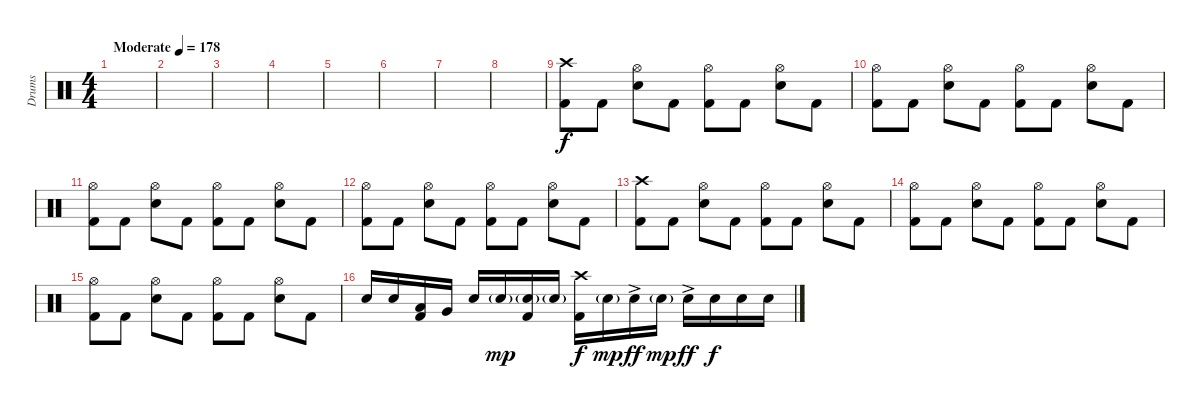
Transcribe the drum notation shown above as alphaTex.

\track ("Drums" "Drums") {instrument percussion}
\staff {score}
\articulation defaults
\ts (4 4)
\tempo (178 "Moderate")
\clef neutral
\ks c
|
|
|
|
|
|
|
|
("Crash high (hit)" "Kick (hit) 2").8 "Kick (hit) 2".8 ("Hi-Hat (open)" "Electric Snare (hit)").8 "Kick (hit) 2".8 ("Hi-Hat (open)" "Kick (hit) 2").8 "Kick (hit) 2".8 ("Hi-Hat (open)" "Electric Snare (hit)").8 "Kick (hit) 2".8 |
("Hi-Hat (open)" "Kick (hit) 2").8 "Kick (hit) 2".8 ("Hi-Hat (open)" "Electric Snare (hit)").8 "Kick (hit) 2".8 ("Hi-Hat (open)" "Kick (hit) 2").8 "Kick (hit) 2".8 ("Hi-Hat (open)" "Electric Snare (hit)").8 "Kick (hit) 2".8 |
("Hi-Hat (open)" "Kick (hit) 2").8 "Kick (hit) 2".8 ("Hi-Hat (open)" "Electric Snare (hit)").8 "Kick (hit) 2".8 ("Hi-Hat (open)" "Kick (hit) 2").8 "Kick (hit) 2".8 ("Hi-Hat (open)" "Electric Snare (hit)").8 "Kick (hit) 2".8 |
("Hi-Hat (open)" "Kick (hit) 2").8 "Kick (hit) 2".8 ("Hi-Hat (open)" "Electric Snare (hit)").8 "Kick (hit) 2".8 ("Hi-Hat (open)" "Kick (hit) 2").8 "Kick (hit) 2".8 ("Hi-Hat (open)" "Electric Snare (hit)").8 "Kick (hit) 2".8 |
("Crash high (hit)" "Kick (hit) 2").8 "Kick (hit) 2".8 ("Hi-Hat (open)" "Electric Snare (hit)").8 "Kick (hit) 2".8 ("Hi-Hat (open)" "Kick (hit) 2").8 "Kick (hit) 2".8 ("Hi-Hat (open)" "Electric Snare (hit)").8 "Kick (hit) 2".8 |
("Hi-Hat (open)" "Kick (hit) 2").8 "Kick (hit) 2".8 ("Hi-Hat (open)" "Electric Snare (hit)").8 "Kick (hit) 2".8 ("Hi-Hat (open)" "Kick (hit) 2").8 "Kick (hit) 2".8 ("Hi-Hat (open)" "Electric Snare (hit)").8 "Kick (hit) 2".8 |
("Hi-Hat (open)" "Kick (hit) 2").8 "Kick (hit) 2".8 ("Hi-Hat (open)" "Electric Snare (hit)").8 "Kick (hit) 2".8 ("Hi-Hat (open)" "Kick (hit) 2").8 "Kick (hit) 2".8 ("Hi-Hat (open)" "Electric Snare (hit)").8 "Kick (hit) 2".8 |
"Electric Snare (hit)".16 "Electric Snare (hit)".16 ("Low Tom (hit)" "Kick (hit) 2").16 "Very Low Tom (hit)".16 "Electric Snare (hit)".16 "Electric Snare (hit)"{g}.16{dy mp} ("Electric Snare (hit)"{g} "Kick (hit) 2").16 "Electric Snare (hit)"{g}.16 ("Crash high (hit)" "Kick (hit) 2").16{dy f} "Electric Snare (hit)"{g}.16{dy mp} "Electric Snare (hit)"{ac}.16{dy ff} "Electric Snare (hit)"{g}.16{dy mp} "Electric Snare (hit)"{ac}.16{dy ff} "Electric Snare (hit)".16{dy f} "Electric Snare (hit)".16 "Electric Snare (hit)".16
